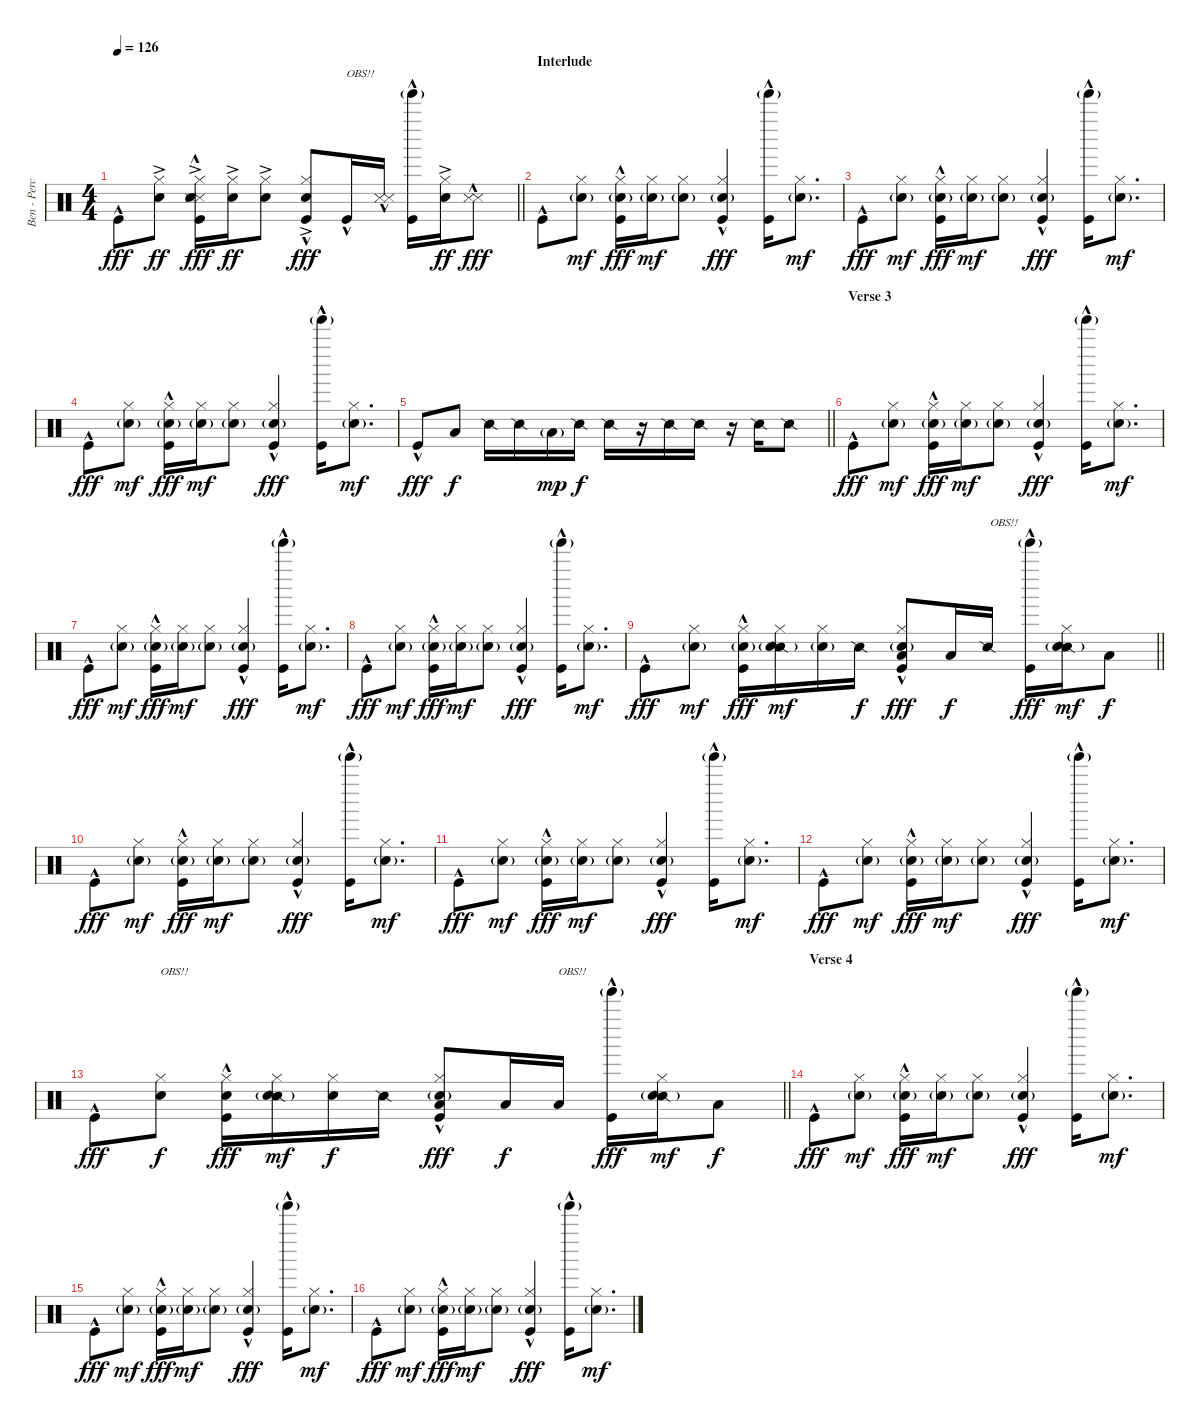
\track ("Ben - Percussion" "Ben - Perc") {instrument percussion}
\staff {score}
\articulation defaults
\ts (4 4)
\tempo 126
\clef neutral
\barLineRight lightlight
\ks c "Kick (hit)"{hac}.8{dy fff}
("Hi-Hat (closed)"{ac} "Snare (hit) 2").8{dy ff} ("Hi-Hat (closed)"{ac} "Metronome (hit)"{hac} "Snare (side stick) 3"{hac} "Snare (hit) 2" "Kick (hit)"{hac}).16{dy fff} ("Hi-Hat (closed)"{ac} "Snare (hit) 2").16{dy ff} ("Hi-Hat (closed)"{ac} "Snare (hit) 2").8 ("Hi-Hat (closed)"{ac} "Snare (hit) 2" "Kick (hit)"{hac}).8{dy fff} "Kick (hit)"{hac}.16{txt "OBS!!"} ("Metronome (hit)"{hac} "Snare (side stick) 3"{hac}).16 ("Tinkle Bell (hit)"{g} "Kick (hit)"{hac}).16 ("Hi-Hat (closed)"{ac} "Snare (hit) 2").16{dy ff} ("Metronome (hit)"{hac} "Snare (side stick) 3"{hac}).8{dy fff} |
\section ("" "Interlude")
"Kick (hit)"{hac}.8 ("Hi-Hat (closed)" "Snare (hit) 2"{g}).8{dy mf} ("Hi-Hat (closed)" "Snare (hit) 2"{g} "Kick (hit)"{hac}).16{dy fff} ("Hi-Hat (closed)" "Snare (hit) 2"{g}).16{dy mf} ("Hi-Hat (closed)" "Snare (hit) 2"{g}).8 ("Hi-Hat (closed)" "Snare (hit) 2"{g} "Kick (hit)"{hac}).4{dy fff} ("Tinkle Bell (hit)"{g} "Kick (hit)"{hac}).16 ("Hi-Hat (closed)" "Snare (hit) 2"{g}).8{d dy mf} |
"Kick (hit)"{hac}.8{dy fff} ("Hi-Hat (closed)" "Snare (hit) 2"{g}).8{dy mf} ("Hi-Hat (closed)" "Snare (hit) 2"{g} "Kick (hit)"{hac}).16{dy fff} ("Hi-Hat (closed)" "Snare (hit) 2"{g}).16{dy mf} ("Hi-Hat (closed)" "Snare (hit) 2"{g}).8 ("Hi-Hat (closed)" "Snare (hit) 2"{g} "Kick (hit)"{hac}).4{dy fff} ("Tinkle Bell (hit)"{g} "Kick (hit)"{hac}).16 ("Hi-Hat (closed)" "Snare (hit) 2"{g}).8{d dy mf} |
"Kick (hit)"{hac}.8{dy fff} ("Hi-Hat (closed)" "Snare (hit) 2"{g}).8{dy mf} ("Hi-Hat (closed)" "Snare (hit) 2"{g} "Kick (hit)"{hac}).16{dy fff} ("Hi-Hat (closed)" "Snare (hit) 2"{g}).16{dy mf} ("Hi-Hat (closed)" "Snare (hit) 2"{g}).8 ("Hi-Hat (closed)" "Snare (hit) 2"{g} "Kick (hit)"{hac}).4{dy fff} ("Tinkle Bell (hit)"{g} "Kick (hit)"{hac}).16 ("Hi-Hat (closed)" "Snare (hit) 2"{g}).8{d dy mf} |
\barLineRight lightlight "Kick (hit)"{hac}.8{dy fff} "Low Tom (hit)".8{dy f} "Snare (side stick) 2".16 "Snare (side stick) 2".16 "Low Tom (hit)"{g}.16{dy mp} "Snare (side stick) 2".16{dy f} "Snare (side stick) 2".16
r.16 "Snare (side stick) 2".16 "Snare (side stick) 2".16 r.16 "Snare (side stick) 2".16 "Snare (side stick) 2".8 |
\section ("" "Verse 3")
"Kick (hit)"{hac}.8{dy fff} ("Hi-Hat (closed)" "Snare (hit) 2"{g}).8{dy mf} ("Hi-Hat (closed)" "Snare (hit) 2"{g} "Kick (hit)"{hac}).16{dy fff} ("Hi-Hat (closed)" "Snare (hit) 2"{g}).16{dy mf} ("Hi-Hat (closed)" "Snare (hit) 2"{g}).8 ("Hi-Hat (closed)" "Snare (hit) 2"{g} "Kick (hit)"{hac}).4{dy fff} ("Tinkle Bell (hit)"{g} "Kick (hit)"{hac}).16 ("Hi-Hat (closed)" "Snare (hit) 2"{g}).8{d dy mf} |
"Kick (hit)"{hac}.8{dy fff} ("Hi-Hat (closed)" "Snare (hit) 2"{g}).8{dy mf} ("Hi-Hat (closed)" "Snare (hit) 2"{g} "Kick (hit)"{hac}).16{dy fff} ("Hi-Hat (closed)" "Snare (hit) 2"{g}).16{dy mf} ("Hi-Hat (closed)" "Snare (hit) 2"{g}).8 ("Hi-Hat (closed)" "Snare (hit) 2"{g} "Kick (hit)"{hac}).4{dy fff} ("Tinkle Bell (hit)"{g} "Kick (hit)"{hac}).16 ("Hi-Hat (closed)" "Snare (hit) 2"{g}).8{d dy mf} |
"Kick (hit)"{hac}.8{dy fff} ("Hi-Hat (closed)" "Snare (hit) 2"{g}).8{dy mf} ("Hi-Hat (closed)" "Snare (hit) 2"{g} "Kick (hit)"{hac}).16{dy fff} ("Hi-Hat (closed)" "Snare (hit) 2"{g}).16{dy mf} ("Hi-Hat (closed)" "Snare (hit) 2"{g}).8 ("Hi-Hat (closed)" "Snare (hit) 2"{g} "Kick (hit)"{hac}).4{dy fff} ("Tinkle Bell (hit)"{g} "Kick (hit)"{hac}).16 ("Hi-Hat (closed)" "Snare (hit) 2"{g}).8{d dy mf} |
\barLineRight lightlight "Kick (hit)"{hac}.8{dy fff}
("Hi-Hat (closed)" "Snare (hit) 2"{g}).8{dy mf} ("Hi-Hat (closed)" "Snare (hit) 2"{g} "Kick (hit)"{hac}).16{dy fff} ("Hi-Hat (closed)" "Snare (side stick) 2" "Snare (hit) 2"{g}).16{dy mf} ("Hi-Hat (closed)" "Snare (hit) 2"{g}).16 "Snare (side stick) 2".16{dy f} ("Hi-Hat (closed)" "Low Tom (hit)" "Snare (hit) 2"{g} "Kick (hit)"{hac}).8{dy fff} "Low Tom (hit)".16{dy f} "Snare (side stick) 2".16{txt "OBS!!"} ("Tinkle Bell (hit)"{g} "Kick (hit)"{hac}).16{dy fff} ("Hi-Hat (closed)" "Snare (side stick) 2" "Snare (hit) 2"{g}).16{dy mf} "Low Tom (hit)".8{dy f} |
"Kick (hit)"{hac}.8{dy fff} ("Hi-Hat (closed)" "Snare (hit) 2"{g}).8{dy mf} ("Hi-Hat (closed)" "Snare (hit) 2"{g} "Kick (hit)"{hac}).16{dy fff} ("Hi-Hat (closed)" "Snare (hit) 2"{g}).16{dy mf} ("Hi-Hat (closed)" "Snare (hit) 2"{g}).8 ("Hi-Hat (closed)" "Snare (hit) 2"{g} "Kick (hit)"{hac}).4{dy fff} ("Tinkle Bell (hit)"{g} "Kick (hit)"{hac}).16 ("Hi-Hat (closed)" "Snare (hit) 2"{g}).8{d dy mf} |
"Kick (hit)"{hac}.8{dy fff} ("Hi-Hat (closed)" "Snare (hit) 2"{g}).8{dy mf} ("Hi-Hat (closed)" "Snare (hit) 2"{g} "Kick (hit)"{hac}).16{dy fff} ("Hi-Hat (closed)" "Snare (hit) 2"{g}).16{dy mf} ("Hi-Hat (closed)" "Snare (hit) 2"{g}).8 ("Hi-Hat (closed)" "Snare (hit) 2"{g} "Kick (hit)"{hac}).4{dy fff} ("Tinkle Bell (hit)"{g} "Kick (hit)"{hac}).16 ("Hi-Hat (closed)" "Snare (hit) 2"{g}).8{d dy mf} |
"Kick (hit)"{hac}.8{dy fff} ("Hi-Hat (closed)" "Snare (hit) 2"{g}).8{dy mf} ("Hi-Hat (closed)" "Snare (hit) 2"{g} "Kick (hit)"{hac}).16{dy fff} ("Hi-Hat (closed)" "Snare (hit) 2"{g}).16{dy mf} ("Hi-Hat (closed)" "Snare (hit) 2"{g}).8 ("Hi-Hat (closed)" "Snare (hit) 2"{g} "Kick (hit)"{hac}).4{dy fff} ("Tinkle Bell (hit)"{g} "Kick (hit)"{hac}).16 ("Hi-Hat (closed)" "Snare (hit) 2"{g}).8{d dy mf} |
\barLineRight lightlight "Kick (hit)"{hac}.8{dy fff}
("Hi-Hat (closed)" "Snare (hit) 2").8{txt "OBS!!" dy f} ("Hi-Hat (closed)" "Snare (hit) 2" "Kick (hit)"{hac}).16{dy fff} ("Hi-Hat (closed)" "Snare (side stick) 2" "Snare (hit) 2"{g}).16{dy mf} ("Hi-Hat (closed)" "Snare (hit) 2").16{dy f} "Snare (side stick) 2".16 ("Hi-Hat (closed)" "Low Tom (hit)" "Snare (hit) 2"{g} "Kick (hit)"{hac}).8{dy fff} "Low Tom (hit)".16{dy f} "Low Tom (hit)".16{txt "OBS!!"} ("Tinkle Bell (hit)"{g} "Kick (hit)"{hac}).16{dy fff} ("Hi-Hat (closed)" "Snare (side stick) 2" "Snare (hit) 2"{g}).16{dy mf} "Low Tom (hit)".8{dy f} |
\section ("" "Verse 4")
"Kick (hit)"{hac}.8{dy fff} ("Hi-Hat (closed)" "Snare (hit) 2"{g}).8{dy mf} ("Hi-Hat (closed)" "Snare (hit) 2"{g} "Kick (hit)"{hac}).16{dy fff} ("Hi-Hat (closed)" "Snare (hit) 2"{g}).16{dy mf} ("Hi-Hat (closed)" "Snare (hit) 2"{g}).8 ("Hi-Hat (closed)" "Snare (hit) 2"{g} "Kick (hit)"{hac}).4{dy fff} ("Tinkle Bell (hit)"{g} "Kick (hit)"{hac}).16 ("Hi-Hat (closed)" "Snare (hit) 2"{g}).8{d dy mf} |
"Kick (hit)"{hac}.8{dy fff} ("Hi-Hat (closed)" "Snare (hit) 2"{g}).8{dy mf} ("Hi-Hat (closed)" "Snare (hit) 2"{g} "Kick (hit)"{hac}).16{dy fff} ("Hi-Hat (closed)" "Snare (hit) 2"{g}).16{dy mf} ("Hi-Hat (closed)" "Snare (hit) 2"{g}).8 ("Hi-Hat (closed)" "Snare (hit) 2"{g} "Kick (hit)"{hac}).4{dy fff} ("Tinkle Bell (hit)"{g} "Kick (hit)"{hac}).16 ("Hi-Hat (closed)" "Snare (hit) 2"{g}).8{d dy mf} |
"Kick (hit)"{hac}.8{dy fff} ("Hi-Hat (closed)" "Snare (hit) 2"{g}).8{dy mf} ("Hi-Hat (closed)" "Snare (hit) 2"{g} "Kick (hit)"{hac}).16{dy fff} ("Hi-Hat (closed)" "Snare (hit) 2"{g}).16{dy mf} ("Hi-Hat (closed)" "Snare (hit) 2"{g}).8 ("Hi-Hat (closed)" "Snare (hit) 2"{g} "Kick (hit)"{hac}).4{dy fff} ("Tinkle Bell (hit)"{g} "Kick (hit)"{hac}).16 ("Hi-Hat (closed)" "Snare (hit) 2"{g}).8{d dy mf}
